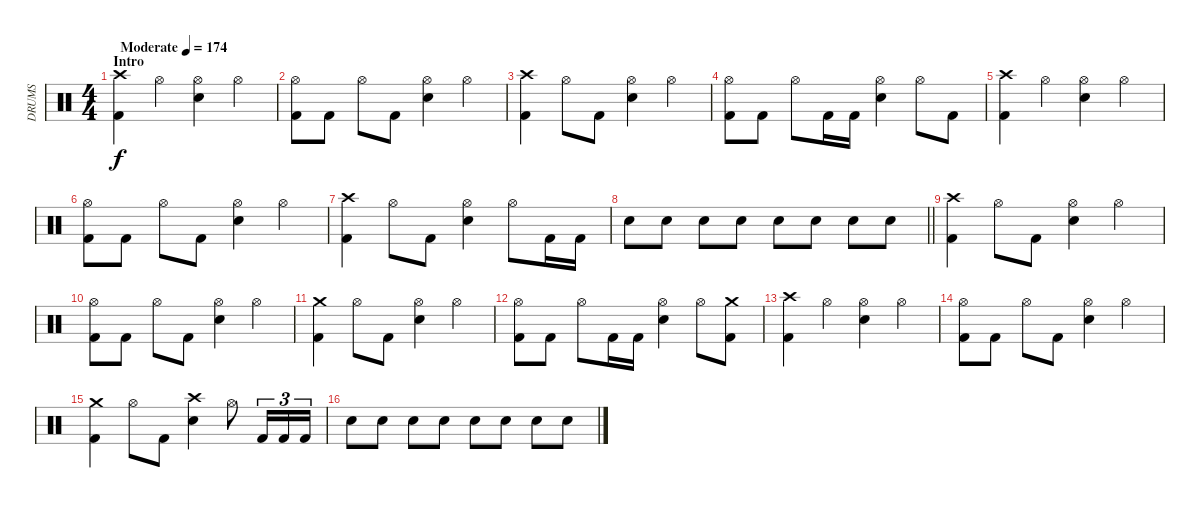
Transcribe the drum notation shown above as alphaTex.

\track ("DRUMS" "DRUMS") {instrument percussion}
\staff {score}
\articulation defaults
\ts (4 4)
\section ("" "Intro")
\tempo (174 "Moderate")
\clef neutral
\ks c
("Crash high (hit)" "Kick (hit) 2").4{dy f} "Hi-Hat (open)".4 ("Hi-Hat (open)" "Snare (hit) 2").4 "Hi-Hat (open)".4 |
("Hi-Hat (open)" "Kick (hit) 2").8 "Kick (hit) 2".8 "Hi-Hat (open)".8 "Kick (hit) 2".8 ("Hi-Hat (open)" "Snare (hit) 2").4 "Hi-Hat (open)".4 |
("Crash high (hit)" "Kick (hit) 2").4 "Hi-Hat (open)".8 "Kick (hit) 2".8 ("Hi-Hat (open)" "Snare (hit) 2").4 "Hi-Hat (open)".4 |
("Hi-Hat (open)" "Kick (hit) 2").8 "Kick (hit) 2".8 "Hi-Hat (open)".8 "Kick (hit) 2".16 "Kick (hit) 2".16 ("Hi-Hat (open)" "Snare (hit) 2").4 "Hi-Hat (open)".8 "Kick (hit) 2".8 |
("Crash high (hit)" "Kick (hit) 2").4 "Hi-Hat (open)".4 ("Hi-Hat (open)" "Snare (hit) 2").4 "Hi-Hat (open)".4 |
("Hi-Hat (open)" "Kick (hit) 2").8 "Kick (hit) 2".8 "Hi-Hat (open)".8 "Kick (hit) 2".8 ("Hi-Hat (open)" "Snare (hit) 2").4 "Hi-Hat (open)".4 |
("Crash high (hit)" "Kick (hit) 2").4 "Hi-Hat (open)".8 "Kick (hit) 2".8 ("Hi-Hat (open)" "Snare (hit) 2").4 "Hi-Hat (open)".8 "Kick (hit) 2".16 "Kick (hit) 2".16 |
\barLineRight lightlight "Snare (hit) 2".8 "Snare (hit) 2".8 "Snare (hit) 2".8 "Snare (hit) 2".8 "Snare (hit) 2".8 "Snare (hit) 2".8 "Snare (hit) 2".8 "Snare (hit) 2".8
|
("Crash high (hit)" "Kick (hit) 2").4 "Hi-Hat (open)".8 "Kick (hit) 2".8 ("Hi-Hat (open)" "Snare (hit) 2").4 "Hi-Hat (open)".4 |
("Hi-Hat (open)" "Kick (hit) 2").8 "Kick (hit) 2".8 "Hi-Hat (open)".8 "Kick (hit) 2".8 ("Hi-Hat (open)" "Snare (hit) 2").4 "Hi-Hat (open)".4 |
("Crash medium (hit)" "Kick (hit) 2").4 "Hi-Hat (open)".8 "Kick (hit) 2".8 ("Hi-Hat (open)" "Snare (hit) 2").4 "Hi-Hat (open)".4 |
("Hi-Hat (open)" "Kick (hit) 2").8 "Kick (hit) 2".8 "Hi-Hat (open)".8 "Kick (hit) 2".16 "Kick (hit) 2".16 ("Hi-Hat (open)" "Snare (hit) 2").4 "Hi-Hat (open)".8 ("Crash medium (hit)" "Kick (hit) 2").8 |
("Crash high (hit)" "Kick (hit) 2").4 "Hi-Hat (open)".4 ("Hi-Hat (open)" "Snare (hit) 2").4 "Hi-Hat (open)".4 |
("Hi-Hat (open)" "Kick (hit) 2").8 "Kick (hit) 2".8 "Hi-Hat (open)".8 "Kick (hit) 2".8 ("Hi-Hat (open)" "Snare (hit) 2").4 "Hi-Hat (open)".4 |
("Crash medium (hit)" "Kick (hit) 2").4 "Hi-Hat (open)".8 "Kick (hit) 2".8 ("Crash high (hit)" "Snare (hit) 2").4 "Hi-Hat (open)".8 "Kick (hit) 2".16{tu (3 2)} "Kick (hit) 2".16{tu (3 2)} "Kick (hit) 2".16{tu (3 2)} |
"Snare (hit) 2".8 "Snare (hit) 2".8 "Snare (hit) 2".8 "Snare (hit) 2".8 "Snare (hit) 2".8 "Snare (hit) 2".8 "Snare (hit) 2".8 "Snare (hit) 2".8
